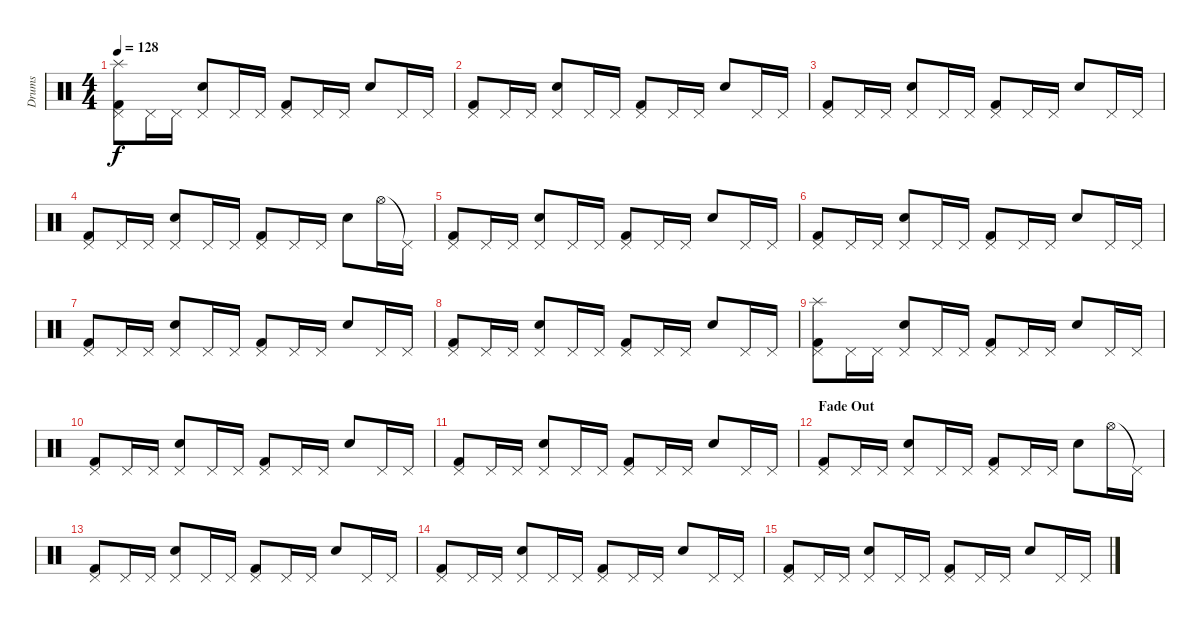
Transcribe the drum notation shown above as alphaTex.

\track ("Drums" "Drums") {instrument percussion}
\staff {score}
\articulation defaults
\ts (4 4)
\tempo 128
\clef neutral
\ks c
("Splash (hit)" "Kick (hit) 2" "Pedal Hi-Hat (hit)").8{dy f} "Pedal Hi-Hat (hit)".16 "Pedal Hi-Hat (hit)".16 ("Snare (hit) 2" "Pedal Hi-Hat (hit)").8 "Pedal Hi-Hat (hit)".16 "Pedal Hi-Hat (hit)".16 ("Kick (hit) 2" "Pedal Hi-Hat (hit)").8 "Pedal Hi-Hat (hit)".16 "Pedal Hi-Hat (hit)".16 "Snare (hit) 2".8 "Pedal Hi-Hat (hit)".16 "Pedal Hi-Hat (hit)".16 |
("Kick (hit) 2" "Pedal Hi-Hat (hit)").8 "Pedal Hi-Hat (hit)".16 "Pedal Hi-Hat (hit)".16 ("Snare (hit) 2" "Pedal Hi-Hat (hit)").8 "Pedal Hi-Hat (hit)".16 "Pedal Hi-Hat (hit)".16 ("Kick (hit) 2" "Pedal Hi-Hat (hit)").8 "Pedal Hi-Hat (hit)".16 "Pedal Hi-Hat (hit)".16 "Snare (hit) 2".8 "Pedal Hi-Hat (hit)".16 "Pedal Hi-Hat (hit)".16 |
("Kick (hit) 2" "Pedal Hi-Hat (hit)").8 "Pedal Hi-Hat (hit)".16 "Pedal Hi-Hat (hit)".16 ("Snare (hit) 2" "Pedal Hi-Hat (hit)").8 "Pedal Hi-Hat (hit)".16 "Pedal Hi-Hat (hit)".16 ("Kick (hit) 2" "Pedal Hi-Hat (hit)").8 "Pedal Hi-Hat (hit)".16 "Pedal Hi-Hat (hit)".16 "Snare (hit) 2".8 "Pedal Hi-Hat (hit)".16 "Pedal Hi-Hat (hit)".16 |
("Kick (hit) 2" "Pedal Hi-Hat (hit)").8 "Pedal Hi-Hat (hit)".16 "Pedal Hi-Hat (hit)".16 ("Snare (hit) 2" "Pedal Hi-Hat (hit)").8 "Pedal Hi-Hat (hit)".16 "Pedal Hi-Hat (hit)".16 ("Kick (hit) 2" "Pedal Hi-Hat (hit)").8 "Pedal Hi-Hat (hit)".16 "Pedal Hi-Hat (hit)".16 "Snare (hit) 2".8 "Hi-Hat (open)".16 "Pedal Hi-Hat (hit)"{t}.16 |
("Kick (hit) 2" "Pedal Hi-Hat (hit)").8 "Pedal Hi-Hat (hit)".16 "Pedal Hi-Hat (hit)".16 ("Snare (hit) 2" "Pedal Hi-Hat (hit)").8 "Pedal Hi-Hat (hit)".16 "Pedal Hi-Hat (hit)".16 ("Kick (hit) 2" "Pedal Hi-Hat (hit)").8 "Pedal Hi-Hat (hit)".16 "Pedal Hi-Hat (hit)".16 "Snare (hit) 2".8 "Pedal Hi-Hat (hit)".16 "Pedal Hi-Hat (hit)".16 |
("Kick (hit) 2" "Pedal Hi-Hat (hit)").8 "Pedal Hi-Hat (hit)".16 "Pedal Hi-Hat (hit)".16 ("Snare (hit) 2" "Pedal Hi-Hat (hit)").8 "Pedal Hi-Hat (hit)".16 "Pedal Hi-Hat (hit)".16 ("Kick (hit) 2" "Pedal Hi-Hat (hit)").8 "Pedal Hi-Hat (hit)".16 "Pedal Hi-Hat (hit)".16 "Snare (hit) 2".8 "Pedal Hi-Hat (hit)".16 "Pedal Hi-Hat (hit)".16 |
("Kick (hit) 2" "Pedal Hi-Hat (hit)").8 "Pedal Hi-Hat (hit)".16 "Pedal Hi-Hat (hit)".16 ("Snare (hit) 2" "Pedal Hi-Hat (hit)").8 "Pedal Hi-Hat (hit)".16 "Pedal Hi-Hat (hit)".16 ("Kick (hit) 2" "Pedal Hi-Hat (hit)").8 "Pedal Hi-Hat (hit)".16 "Pedal Hi-Hat (hit)".16 "Snare (hit) 2".8 "Pedal Hi-Hat (hit)".16 "Pedal Hi-Hat (hit)".16 |
("Kick (hit) 2" "Pedal Hi-Hat (hit)").8 "Pedal Hi-Hat (hit)".16 "Pedal Hi-Hat (hit)".16 ("Snare (hit) 2" "Pedal Hi-Hat (hit)").8 "Pedal Hi-Hat (hit)".16 "Pedal Hi-Hat (hit)".16 ("Kick (hit) 2" "Pedal Hi-Hat (hit)").8 "Pedal Hi-Hat (hit)".16 "Pedal Hi-Hat (hit)".16 "Snare (hit) 2".8 "Pedal Hi-Hat (hit)".16 "Pedal Hi-Hat (hit)".16 |
("Splash (hit)" "Kick (hit) 2" "Pedal Hi-Hat (hit)").8 "Pedal Hi-Hat (hit)".16 "Pedal Hi-Hat (hit)".16 ("Snare (hit) 2" "Pedal Hi-Hat (hit)").8 "Pedal Hi-Hat (hit)".16 "Pedal Hi-Hat (hit)".16 ("Kick (hit) 2" "Pedal Hi-Hat (hit)").8 "Pedal Hi-Hat (hit)".16 "Pedal Hi-Hat (hit)".16 "Snare (hit) 2".8 "Pedal Hi-Hat (hit)".16 "Pedal Hi-Hat (hit)".16 |
("Kick (hit) 2" "Pedal Hi-Hat (hit)").8 "Pedal Hi-Hat (hit)".16 "Pedal Hi-Hat (hit)".16 ("Snare (hit) 2" "Pedal Hi-Hat (hit)").8 "Pedal Hi-Hat (hit)".16 "Pedal Hi-Hat (hit)".16 ("Kick (hit) 2" "Pedal Hi-Hat (hit)").8 "Pedal Hi-Hat (hit)".16 "Pedal Hi-Hat (hit)".16 "Snare (hit) 2".8 "Pedal Hi-Hat (hit)".16 "Pedal Hi-Hat (hit)".16 |
("Kick (hit) 2" "Pedal Hi-Hat (hit)").8 "Pedal Hi-Hat (hit)".16 "Pedal Hi-Hat (hit)".16 ("Snare (hit) 2" "Pedal Hi-Hat (hit)").8 "Pedal Hi-Hat (hit)".16 "Pedal Hi-Hat (hit)".16 ("Kick (hit) 2" "Pedal Hi-Hat (hit)").8 "Pedal Hi-Hat (hit)".16 "Pedal Hi-Hat (hit)".16 "Snare (hit) 2".8 "Pedal Hi-Hat (hit)".16 "Pedal Hi-Hat (hit)".16 |
\section ("" "Fade Out")
("Kick (hit) 2" "Pedal Hi-Hat (hit)").8{volume 0} "Pedal Hi-Hat (hit)".16 "Pedal Hi-Hat (hit)".16 ("Snare (hit) 2" "Pedal Hi-Hat (hit)").8 "Pedal Hi-Hat (hit)".16 "Pedal Hi-Hat (hit)".16 ("Kick (hit) 2" "Pedal Hi-Hat (hit)").8 "Pedal Hi-Hat (hit)".16 "Pedal Hi-Hat (hit)".16 "Snare (hit) 2".8 "Hi-Hat (open)".16 "Pedal Hi-Hat (hit)"{t}.16 |
("Kick (hit) 2" "Pedal Hi-Hat (hit)").8 "Pedal Hi-Hat (hit)".16 "Pedal Hi-Hat (hit)".16 ("Snare (hit) 2" "Pedal Hi-Hat (hit)").8 "Pedal Hi-Hat (hit)".16 "Pedal Hi-Hat (hit)".16 ("Kick (hit) 2" "Pedal Hi-Hat (hit)").8 "Pedal Hi-Hat (hit)".16 "Pedal Hi-Hat (hit)".16 "Snare (hit) 2".8 "Pedal Hi-Hat (hit)".16 "Pedal Hi-Hat (hit)".16 |
("Kick (hit) 2" "Pedal Hi-Hat (hit)").8 "Pedal Hi-Hat (hit)".16 "Pedal Hi-Hat (hit)".16 ("Snare (hit) 2" "Pedal Hi-Hat (hit)").8 "Pedal Hi-Hat (hit)".16 "Pedal Hi-Hat (hit)".16 ("Kick (hit) 2" "Pedal Hi-Hat (hit)").8 "Pedal Hi-Hat (hit)".16 "Pedal Hi-Hat (hit)".16 "Snare (hit) 2".8 "Pedal Hi-Hat (hit)".16 "Pedal Hi-Hat (hit)".16 |
("Kick (hit) 2" "Pedal Hi-Hat (hit)").8 "Pedal Hi-Hat (hit)".16 "Pedal Hi-Hat (hit)".16 ("Snare (hit) 2" "Pedal Hi-Hat (hit)").8 "Pedal Hi-Hat (hit)".16 "Pedal Hi-Hat (hit)".16 ("Kick (hit) 2" "Pedal Hi-Hat (hit)").8 "Pedal Hi-Hat (hit)".16 "Pedal Hi-Hat (hit)".16 "Snare (hit) 2".8 "Pedal Hi-Hat (hit)".16 "Pedal Hi-Hat (hit)".16
